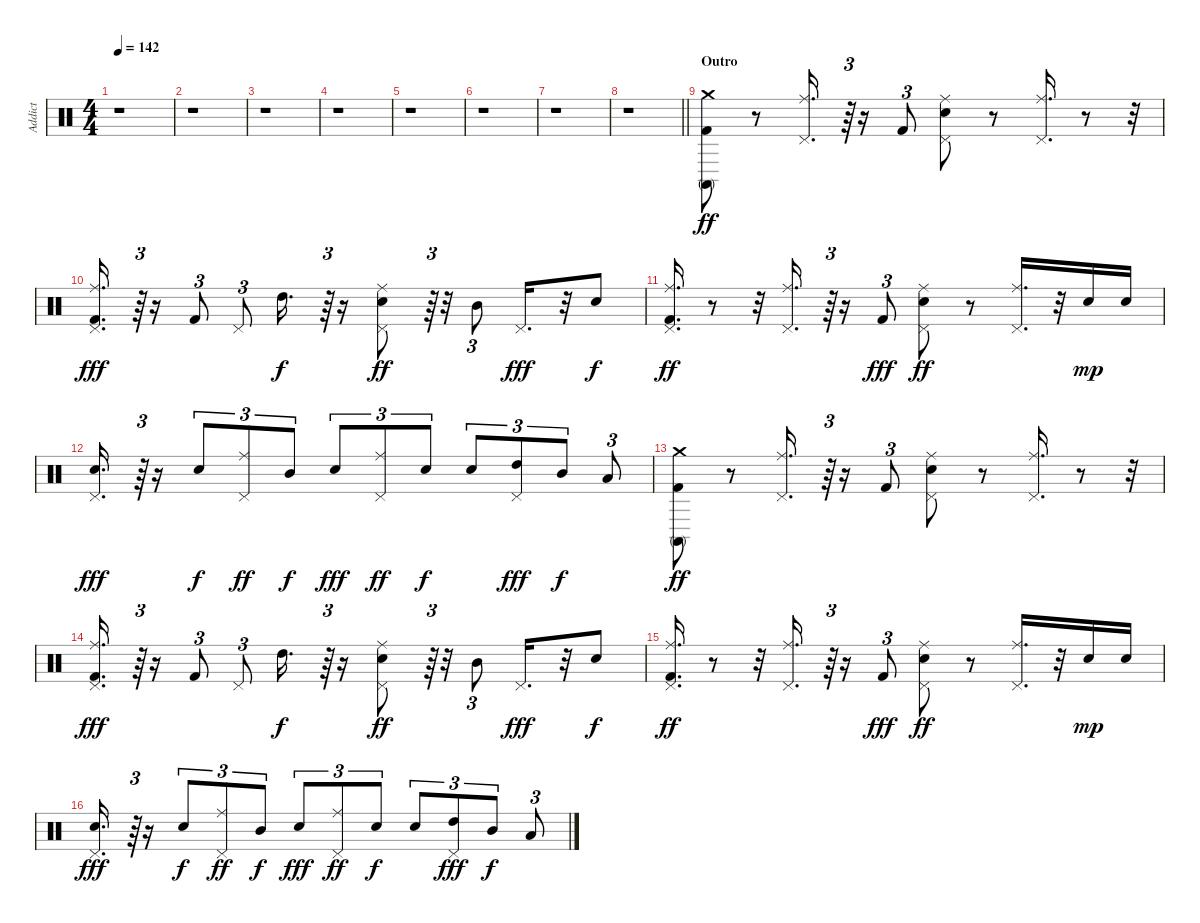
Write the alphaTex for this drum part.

\track ("Addict" "Addict") {instrument percussion}
\staff {score}
\articulation defaults
\ts (4 4)
\tempo 142
\clef neutral
\ks c
r.1{dy fff} |
r.1 |
r.1 |
r.1 |
r.1 |
r.1 |
r.1 |
\barLineRight lightlight
r.1 |
\section ("" "Outro")
("Kick (hit) 2" "Conga high (mute)" "Crash medium (hit)").8{dy ff} r.8 ("Ride (middle)" "Pedal Hi-Hat (hit)").16{d} r.64{tu (3 2)} r.16 "Kick (hit) 2".8{tu (3 2)} ("Snare (hit) 2" "Pedal Hi-Hat (hit)" "Ride (middle)").8 r.8 ("Pedal Hi-Hat (hit)" "Ride (middle)").16{d} r.8 r.32 |
("Kick (hit) 2" "Pedal Hi-Hat (hit)" "Ride (middle)").16{d dy fff} r.64{tu (3 2)} r.16 "Kick (hit) 2".8{tu (3 2)} "Pedal Hi-Hat (hit)".8{tu (3 2)} "High Tom (hit)".16{d dy f} r.64{tu (3 2)} r.16 ("Snare (hit) 2" "Pedal Hi-Hat (hit)" "Ride (middle)").8{dy ff} r.64{tu (3 2)} r.32 "Mid Tom (hit)".8{tu (3 2)} "Pedal Hi-Hat (hit)".16{d dy fff} r.32 "Snare (hit) 2".8{dy f} |
("Kick (hit) 2" "Pedal Hi-Hat (hit)" "Ride (middle)").16{d dy ff} r.8 r.32 ("Pedal Hi-Hat (hit)" "Ride (middle)").16{d} r.64{tu (3 2)} r.16 "Kick (hit) 2".8{tu (3 2) dy fff} ("Snare (hit) 2" "Pedal Hi-Hat (hit)" "Ride (middle)").8{dy ff} r.8 ("Pedal Hi-Hat (hit)" "Ride (middle)").16{d} r.32 "Snare (hit) 2".16{dy mp} "Snare (hit) 2".16 |
("Snare (hit) 2" "Pedal Hi-Hat (hit)").16{d dy fff} r.64{tu (3 2)} r.16 "Snare (hit) 2".8{tu (3 2) dy f} ("Pedal Hi-Hat (hit)" "Ride (middle)").8{tu (3 2) dy ff} "Mid Tom (hit)".8{tu (3 2) dy f} "Snare (hit) 2".8{tu (3 2) dy fff} ("Pedal Hi-Hat (hit)" "Ride (middle)").8{tu (3 2) dy ff} "Snare (hit) 2".8{tu (3 2) dy f} "Snare (hit) 2".8{tu (3 2)} ("Pedal Hi-Hat (hit)" "High Tom (hit)").8{tu (3 2) dy fff} "Mid Tom (hit)".8{tu (3 2) dy f} "Low Tom (hit)".8{tu (3 2)} |
("Kick (hit) 2" "Conga high (mute)" "Crash medium (hit)").8{dy ff} r.8 ("Ride (middle)" "Pedal Hi-Hat (hit)").16{d} r.64{tu (3 2)} r.16 "Kick (hit) 2".8{tu (3 2)} ("Snare (hit) 2" "Pedal Hi-Hat (hit)" "Ride (middle)").8 r.8 ("Pedal Hi-Hat (hit)" "Ride (middle)").16{d} r.8 r.32 |
("Kick (hit) 2" "Pedal Hi-Hat (hit)" "Ride (middle)").16{d dy fff} r.64{tu (3 2)} r.16 "Kick (hit) 2".8{tu (3 2)} "Pedal Hi-Hat (hit)".8{tu (3 2)} "High Tom (hit)".16{d dy f} r.64{tu (3 2)} r.16 ("Snare (hit) 2" "Pedal Hi-Hat (hit)" "Ride (middle)").8{dy ff} r.64{tu (3 2)} r.32 "Mid Tom (hit)".8{tu (3 2)} "Pedal Hi-Hat (hit)".16{d dy fff} r.32 "Snare (hit) 2".8{dy f} |
("Kick (hit) 2" "Pedal Hi-Hat (hit)" "Ride (middle)").16{d dy ff} r.8 r.32 ("Pedal Hi-Hat (hit)" "Ride (middle)").16{d} r.64{tu (3 2)} r.16 "Kick (hit) 2".8{tu (3 2) dy fff} ("Snare (hit) 2" "Pedal Hi-Hat (hit)" "Ride (middle)").8{dy ff} r.8 ("Pedal Hi-Hat (hit)" "Ride (middle)").16{d} r.32 "Snare (hit) 2".16{dy mp} "Snare (hit) 2".16 |
("Snare (hit) 2" "Pedal Hi-Hat (hit)").16{d dy fff} r.64{tu (3 2)} r.16 "Snare (hit) 2".8{tu (3 2) dy f} ("Pedal Hi-Hat (hit)" "Ride (middle)").8{tu (3 2) dy ff} "Mid Tom (hit)".8{tu (3 2) dy f} "Snare (hit) 2".8{tu (3 2) dy fff} ("Pedal Hi-Hat (hit)" "Ride (middle)").8{tu (3 2) dy ff} "Snare (hit) 2".8{tu (3 2) dy f} "Snare (hit) 2".8{tu (3 2)} ("Pedal Hi-Hat (hit)" "High Tom (hit)").8{tu (3 2) dy fff} "Mid Tom (hit)".8{tu (3 2) dy f} "Low Tom (hit)".8{tu (3 2)}
